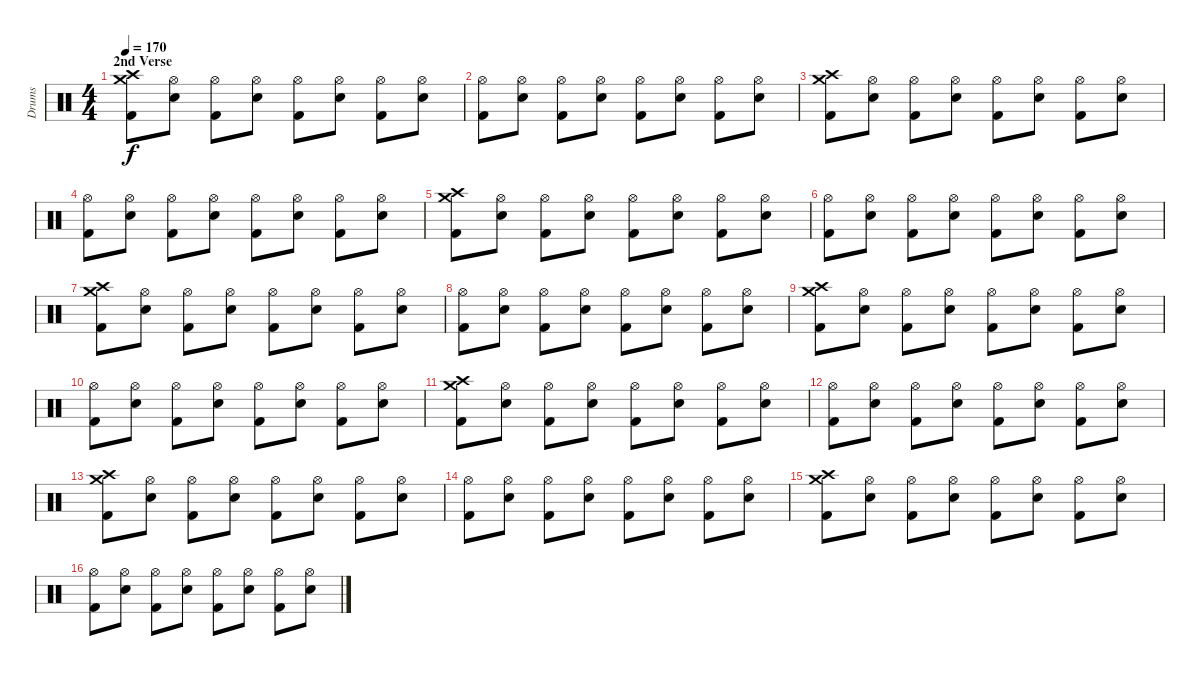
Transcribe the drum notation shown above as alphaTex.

\track ("Drums" "Drums") {instrument percussion}
\staff {score}
\articulation defaults
\ts (4 4)
\section ("" "2nd Verse")
\tempo 170
\clef neutral
\ks c
("Crash medium (hit)" "Crash high (hit)" "Kick (hit) 2").8{dy f} ("Hi-Hat (open)" "Snare (hit) 2").8 ("Hi-Hat (open)" "Kick (hit) 2").8 ("Hi-Hat (open)" "Snare (hit) 2").8 ("Hi-Hat (open)" "Kick (hit) 2").8 ("Hi-Hat (open)" "Snare (hit) 2").8 ("Hi-Hat (open)" "Kick (hit) 2").8 ("Hi-Hat (open)" "Snare (hit) 2").8 |
("Hi-Hat (open)" "Kick (hit) 2").8 ("Hi-Hat (open)" "Snare (hit) 2").8 ("Hi-Hat (open)" "Kick (hit) 2").8 ("Hi-Hat (open)" "Snare (hit) 2").8 ("Hi-Hat (open)" "Kick (hit) 2").8 ("Hi-Hat (open)" "Snare (hit) 2").8 ("Hi-Hat (open)" "Kick (hit) 2").8 ("Hi-Hat (open)" "Snare (hit) 2").8 |
("Crash medium (hit)" "Crash high (hit)" "Kick (hit) 2").8 ("Hi-Hat (open)" "Snare (hit) 2").8 ("Hi-Hat (open)" "Kick (hit) 2").8 ("Hi-Hat (open)" "Snare (hit) 2").8 ("Hi-Hat (open)" "Kick (hit) 2").8 ("Hi-Hat (open)" "Snare (hit) 2").8 ("Hi-Hat (open)" "Kick (hit) 2").8 ("Hi-Hat (open)" "Snare (hit) 2").8 |
("Hi-Hat (open)" "Kick (hit) 2").8 ("Hi-Hat (open)" "Snare (hit) 2").8 ("Hi-Hat (open)" "Kick (hit) 2").8 ("Hi-Hat (open)" "Snare (hit) 2").8 ("Hi-Hat (open)" "Kick (hit) 2").8 ("Hi-Hat (open)" "Snare (hit) 2").8 ("Hi-Hat (open)" "Kick (hit) 2").8 ("Hi-Hat (open)" "Snare (hit) 2").8 |
("Crash medium (hit)" "Crash high (hit)" "Kick (hit) 2").8 ("Hi-Hat (open)" "Snare (hit) 2").8 ("Hi-Hat (open)" "Kick (hit) 2").8 ("Hi-Hat (open)" "Snare (hit) 2").8 ("Hi-Hat (open)" "Kick (hit) 2").8 ("Hi-Hat (open)" "Snare (hit) 2").8 ("Hi-Hat (open)" "Kick (hit) 2").8 ("Hi-Hat (open)" "Snare (hit) 2").8 |
("Hi-Hat (open)" "Kick (hit) 2").8 ("Hi-Hat (open)" "Snare (hit) 2").8 ("Hi-Hat (open)" "Kick (hit) 2").8 ("Hi-Hat (open)" "Snare (hit) 2").8 ("Hi-Hat (open)" "Kick (hit) 2").8 ("Hi-Hat (open)" "Snare (hit) 2").8 ("Hi-Hat (open)" "Kick (hit) 2").8 ("Hi-Hat (open)" "Snare (hit) 2").8 |
("Crash medium (hit)" "Crash high (hit)" "Kick (hit) 2").8 ("Hi-Hat (open)" "Snare (hit) 2").8 ("Hi-Hat (open)" "Kick (hit) 2").8 ("Hi-Hat (open)" "Snare (hit) 2").8 ("Hi-Hat (open)" "Kick (hit) 2").8 ("Hi-Hat (open)" "Snare (hit) 2").8 ("Hi-Hat (open)" "Kick (hit) 2").8 ("Hi-Hat (open)" "Snare (hit) 2").8 |
("Hi-Hat (open)" "Kick (hit) 2").8 ("Hi-Hat (open)" "Snare (hit) 2").8 ("Hi-Hat (open)" "Kick (hit) 2").8 ("Hi-Hat (open)" "Snare (hit) 2").8 ("Hi-Hat (open)" "Kick (hit) 2").8 ("Hi-Hat (open)" "Snare (hit) 2").8 ("Hi-Hat (open)" "Kick (hit) 2").8 ("Hi-Hat (open)" "Snare (hit) 2").8 |
("Crash medium (hit)" "Crash high (hit)" "Kick (hit) 2").8 ("Hi-Hat (open)" "Snare (hit) 2").8 ("Hi-Hat (open)" "Kick (hit) 2").8 ("Hi-Hat (open)" "Snare (hit) 2").8 ("Hi-Hat (open)" "Kick (hit) 2").8 ("Hi-Hat (open)" "Snare (hit) 2").8 ("Hi-Hat (open)" "Kick (hit) 2").8 ("Hi-Hat (open)" "Snare (hit) 2").8 |
("Hi-Hat (open)" "Kick (hit) 2").8 ("Hi-Hat (open)" "Snare (hit) 2").8 ("Hi-Hat (open)" "Kick (hit) 2").8 ("Hi-Hat (open)" "Snare (hit) 2").8 ("Hi-Hat (open)" "Kick (hit) 2").8 ("Hi-Hat (open)" "Snare (hit) 2").8 ("Hi-Hat (open)" "Kick (hit) 2").8 ("Hi-Hat (open)" "Snare (hit) 2").8 |
("Crash medium (hit)" "Crash high (hit)" "Kick (hit) 2").8 ("Hi-Hat (open)" "Snare (hit) 2").8 ("Hi-Hat (open)" "Kick (hit) 2").8 ("Hi-Hat (open)" "Snare (hit) 2").8 ("Hi-Hat (open)" "Kick (hit) 2").8 ("Hi-Hat (open)" "Snare (hit) 2").8 ("Hi-Hat (open)" "Kick (hit) 2").8 ("Hi-Hat (open)" "Snare (hit) 2").8 |
("Hi-Hat (open)" "Kick (hit) 2").8 ("Hi-Hat (open)" "Snare (hit) 2").8 ("Hi-Hat (open)" "Kick (hit) 2").8 ("Hi-Hat (open)" "Snare (hit) 2").8 ("Hi-Hat (open)" "Kick (hit) 2").8 ("Hi-Hat (open)" "Snare (hit) 2").8 ("Hi-Hat (open)" "Kick (hit) 2").8 ("Hi-Hat (open)" "Snare (hit) 2").8 |
("Crash medium (hit)" "Crash high (hit)" "Kick (hit) 2").8 ("Hi-Hat (open)" "Snare (hit) 2").8 ("Hi-Hat (open)" "Kick (hit) 2").8 ("Hi-Hat (open)" "Snare (hit) 2").8 ("Hi-Hat (open)" "Kick (hit) 2").8 ("Hi-Hat (open)" "Snare (hit) 2").8 ("Hi-Hat (open)" "Kick (hit) 2").8 ("Hi-Hat (open)" "Snare (hit) 2").8 |
("Hi-Hat (open)" "Kick (hit) 2").8 ("Hi-Hat (open)" "Snare (hit) 2").8 ("Hi-Hat (open)" "Kick (hit) 2").8 ("Hi-Hat (open)" "Snare (hit) 2").8 ("Hi-Hat (open)" "Kick (hit) 2").8 ("Hi-Hat (open)" "Snare (hit) 2").8 ("Hi-Hat (open)" "Kick (hit) 2").8 ("Hi-Hat (open)" "Snare (hit) 2").8 |
("Crash medium (hit)" "Crash high (hit)" "Kick (hit) 2").8 ("Hi-Hat (open)" "Snare (hit) 2").8 ("Hi-Hat (open)" "Kick (hit) 2").8 ("Hi-Hat (open)" "Snare (hit) 2").8 ("Hi-Hat (open)" "Kick (hit) 2").8 ("Hi-Hat (open)" "Snare (hit) 2").8 ("Hi-Hat (open)" "Kick (hit) 2").8 ("Hi-Hat (open)" "Snare (hit) 2").8 |
("Hi-Hat (open)" "Kick (hit) 2").8 ("Hi-Hat (open)" "Snare (hit) 2").8 ("Hi-Hat (open)" "Kick (hit) 2").8 ("Hi-Hat (open)" "Snare (hit) 2").8 ("Hi-Hat (open)" "Kick (hit) 2").8 ("Hi-Hat (open)" "Snare (hit) 2").8 ("Hi-Hat (open)" "Kick (hit) 2").8 ("Hi-Hat (open)" "Snare (hit) 2").8
